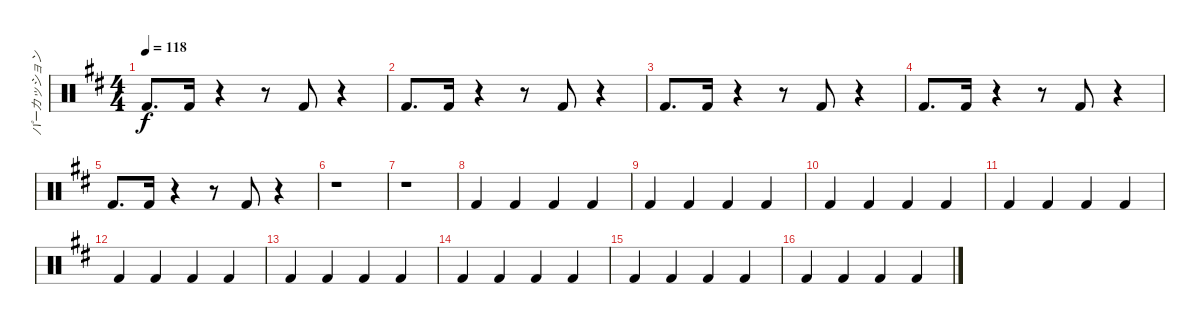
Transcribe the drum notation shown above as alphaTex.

\track ("パーカッション" "パーカッション") {instrument percussion}
\staff {score}
\articulation defaults
\ts (4 4)
\tempo 118
\clef neutral
\ks d "Kick (hit) 2".8{d dy f} "Kick (hit) 2".16
r.4 r.8 "Kick (hit) 2".8 r.4 |
"Kick (hit) 2".8{d} "Kick (hit) 2".16 r.4 r.8 "Kick (hit) 2".8 r.4 |
"Kick (hit) 2".8{d} "Kick (hit) 2".16 r.4 r.8 "Kick (hit) 2".8 r.4 |
"Kick (hit) 2".8{d} "Kick (hit) 2".16 r.4 r.8 "Kick (hit) 2".8 r.4 |
"Kick (hit) 2".8{d} "Kick (hit) 2".16 r.4 r.8 "Kick (hit) 2".8 r.4 |
r.1 |
r.1 |
"Kick (hit) 2".4 "Kick (hit) 2".4 "Kick (hit) 2".4 "Kick (hit) 2".4 |
"Kick (hit) 2".4 "Kick (hit) 2".4 "Kick (hit) 2".4 "Kick (hit) 2".4 |
"Kick (hit) 2".4 "Kick (hit) 2".4 "Kick (hit) 2".4 "Kick (hit) 2".4 |
"Kick (hit) 2".4 "Kick (hit) 2".4 "Kick (hit) 2".4 "Kick (hit) 2".4 |
"Kick (hit) 2".4 "Kick (hit) 2".4 "Kick (hit) 2".4 "Kick (hit) 2".4 |
"Kick (hit) 2".4 "Kick (hit) 2".4 "Kick (hit) 2".4 "Kick (hit) 2".4 |
"Kick (hit) 2".4 "Kick (hit) 2".4 "Kick (hit) 2".4 "Kick (hit) 2".4 |
"Kick (hit) 2".4 "Kick (hit) 2".4 "Kick (hit) 2".4 "Kick (hit) 2".4 |
"Kick (hit) 2".4 "Kick (hit) 2".4 "Kick (hit) 2".4 "Kick (hit) 2".4
